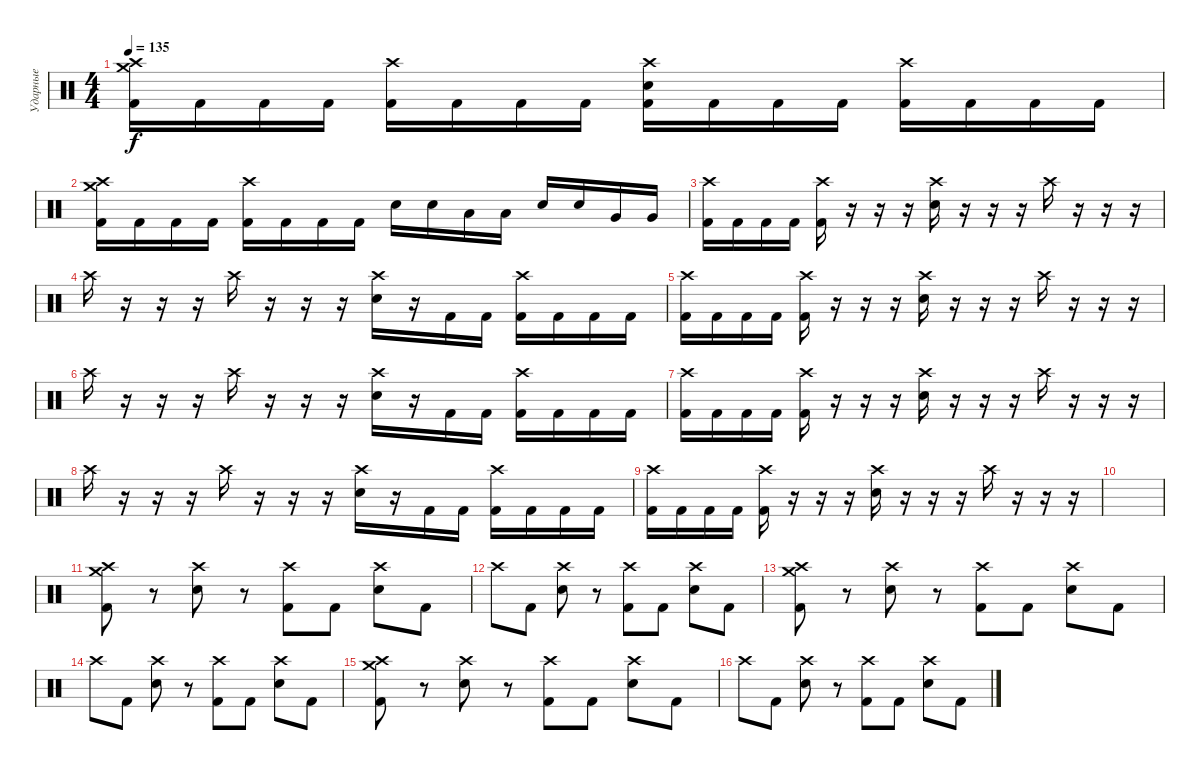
\track ("Ударные" "Ударные") {instrument percussion}
\staff {score}
\articulation defaults
\ts (4 4)
\tempo 135
\clef neutral
\ks c
("Crash high (hit)" "Crash medium (hit)" "Kick (hit) 2").16{dy f} "Kick (hit) 2".16 "Kick (hit) 2".16 "Kick (hit) 2".16 ("Crash high (hit)" "Kick (hit) 2").16 "Kick (hit) 2".16 "Kick (hit) 2".16 "Kick (hit) 2".16 ("Crash high (hit)" "Electric Snare (hit)" "Kick (hit) 2").16 "Kick (hit) 2".16 "Kick (hit) 2".16 "Kick (hit) 2".16 ("Crash high (hit)" "Kick (hit) 2").16 "Kick (hit) 2".16 "Kick (hit) 2".16 "Kick (hit) 2".16 |
("Crash high (hit)" "Crash medium (hit)" "Kick (hit) 2").16 "Kick (hit) 2".16 "Kick (hit) 2".16 "Kick (hit) 2".16 ("Crash high (hit)" "Kick (hit) 2").16 "Kick (hit) 2".16 "Kick (hit) 2".16 "Kick (hit) 2".16 "Electric Snare (hit)".16 "Electric Snare (hit)".16 "Low Tom (hit)".16 "Low Tom (hit)".16 "Electric Snare (hit)".16 "Electric Snare (hit)".16 "Very Low Tom (hit)".16 "Very Low Tom (hit)".16 |
("Crash high (hit)" "Kick (hit) 2").16 "Kick (hit) 2".16 "Kick (hit) 2".16 "Kick (hit) 2".16 ("Crash high (hit)" "Kick (hit) 2").16 r.16 r.16 r.16 ("Crash high (hit)" "Electric Snare (hit)").16 r.16 r.16 r.16 "Crash high (hit)".16 r.16 r.16 r.16 |
"Crash high (hit)".16 r.16 r.16 r.16 "Crash high (hit)".16 r.16 r.16 r.16 ("Crash high (hit)" "Electric Snare (hit)").16 r.16 "Kick (hit) 2".16 "Kick (hit) 2".16 ("Crash high (hit)" "Kick (hit) 2").16 "Kick (hit) 2".16 "Kick (hit) 2".16 "Kick (hit) 2".16 |
("Crash high (hit)" "Kick (hit) 2").16 "Kick (hit) 2".16 "Kick (hit) 2".16 "Kick (hit) 2".16 ("Crash high (hit)" "Kick (hit) 2").16 r.16 r.16 r.16 ("Crash high (hit)" "Electric Snare (hit)").16 r.16 r.16 r.16 "Crash high (hit)".16 r.16 r.16 r.16 |
"Crash high (hit)".16 r.16 r.16 r.16 "Crash high (hit)".16 r.16 r.16 r.16 ("Crash high (hit)" "Electric Snare (hit)").16 r.16 "Kick (hit) 2".16 "Kick (hit) 2".16 ("Crash high (hit)" "Kick (hit) 2").16 "Kick (hit) 2".16 "Kick (hit) 2".16 "Kick (hit) 2".16 |
("Crash high (hit)" "Kick (hit) 2").16 "Kick (hit) 2".16 "Kick (hit) 2".16 "Kick (hit) 2".16 ("Crash high (hit)" "Kick (hit) 2").16 r.16 r.16 r.16 ("Crash high (hit)" "Electric Snare (hit)").16 r.16 r.16 r.16 "Crash high (hit)".16 r.16 r.16 r.16 |
"Crash high (hit)".16 r.16 r.16 r.16 "Crash high (hit)".16 r.16 r.16 r.16 ("Crash high (hit)" "Electric Snare (hit)").16 r.16 "Kick (hit) 2".16 "Kick (hit) 2".16 ("Crash high (hit)" "Kick (hit) 2").16 "Kick (hit) 2".16 "Kick (hit) 2".16 "Kick (hit) 2".16 |
("Crash high (hit)" "Kick (hit) 2").16 "Kick (hit) 2".16 "Kick (hit) 2".16 "Kick (hit) 2".16 ("Crash high (hit)" "Kick (hit) 2").16 r.16 r.16 r.16 ("Crash high (hit)" "Electric Snare (hit)").16 r.16 r.16 r.16 "Crash high (hit)".16 r.16 r.16 r.16 |
|
("Crash high (hit)" "Crash medium (hit)" "Kick (hit) 2").8 r.8 ("Crash high (hit)" "Electric Snare (hit)").8 r.8 ("Crash high (hit)" "Kick (hit) 2").8 "Kick (hit) 2".8 ("Crash high (hit)" "Electric Snare (hit)").8 "Kick (hit) 2".8 |
"Crash high (hit)".8 "Kick (hit) 2".8 ("Crash high (hit)" "Electric Snare (hit)").8 r.8 ("Crash high (hit)" "Kick (hit) 2").8 "Kick (hit) 2".8 ("Crash high (hit)" "Electric Snare (hit)").8 "Kick (hit) 2".8 |
("Crash high (hit)" "Crash medium (hit)" "Kick (hit) 2").8 r.8 ("Crash high (hit)" "Electric Snare (hit)").8 r.8 ("Crash high (hit)" "Kick (hit) 2").8 "Kick (hit) 2".8 ("Crash high (hit)" "Electric Snare (hit)").8 "Kick (hit) 2".8 |
"Crash high (hit)".8 "Kick (hit) 2".8 ("Crash high (hit)" "Electric Snare (hit)").8 r.8 ("Crash high (hit)" "Kick (hit) 2").8 "Kick (hit) 2".8 ("Crash high (hit)" "Electric Snare (hit)").8 "Kick (hit) 2".8 |
("Crash high (hit)" "Crash medium (hit)" "Kick (hit) 2").8 r.8 ("Crash high (hit)" "Electric Snare (hit)").8 r.8 ("Crash high (hit)" "Kick (hit) 2").8 "Kick (hit) 2".8 ("Crash high (hit)" "Electric Snare (hit)").8 "Kick (hit) 2".8 |
"Crash high (hit)".8 "Kick (hit) 2".8 ("Crash high (hit)" "Electric Snare (hit)").8 r.8 ("Crash high (hit)" "Kick (hit) 2").8 "Kick (hit) 2".8 ("Crash high (hit)" "Electric Snare (hit)").8 "Kick (hit) 2".8
